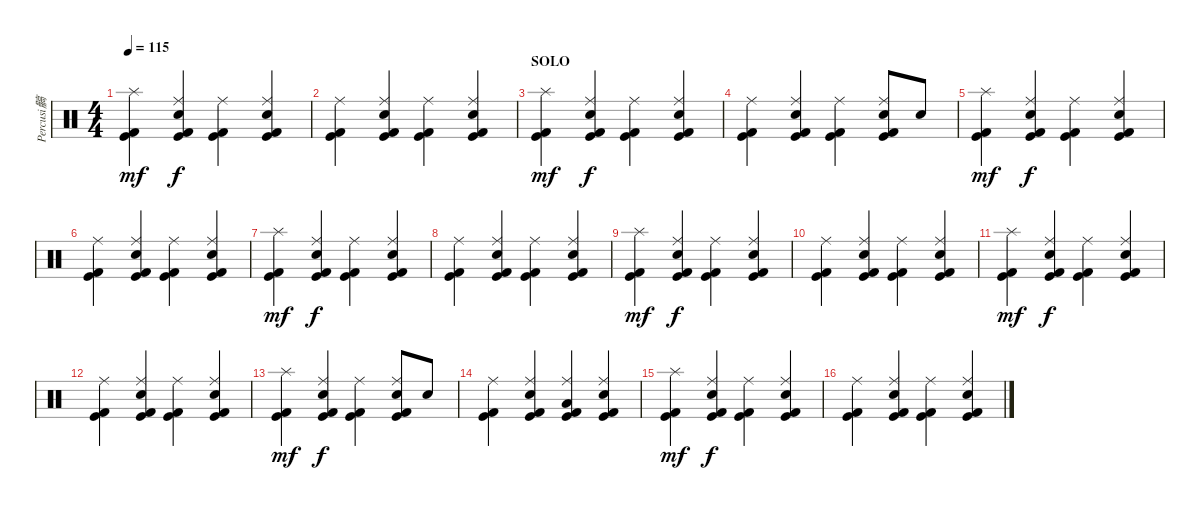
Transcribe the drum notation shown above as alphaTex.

\track ("Percusi髇" "Percusi髇") {instrument percussion}
\staff {score}
\articulation defaults
\ts (4 4)
\tempo 115
\clef neutral
\ks c
("Splash (hit)" "Kick (hit) 2" "Kick (hit)").4{dy mf} ("Ride (middle)" "Electric Snare (hit)" "Kick (hit) 2" "Kick (hit)").4{dy f} ("Ride (middle)" "Kick (hit) 2" "Kick (hit)").4 ("Ride (middle)" "Electric Snare (hit)" "Kick (hit) 2" "Kick (hit)").4 |
("Ride (middle)" "Kick (hit) 2" "Kick (hit)").4 ("Ride (middle)" "Electric Snare (hit)" "Kick (hit) 2" "Kick (hit)").4 ("Ride (middle)" "Kick (hit) 2" "Kick (hit)").4 ("Ride (middle)" "Electric Snare (hit)" "Kick (hit) 2" "Kick (hit)").4 |
\section ("" "SOLO")
("Splash (hit)" "Kick (hit) 2" "Kick (hit)").4{dy mf} ("Ride (middle)" "Electric Snare (hit)" "Kick (hit) 2" "Kick (hit)").4{dy f} ("Ride (middle)" "Kick (hit) 2" "Kick (hit)").4 ("Ride (middle)" "Electric Snare (hit)" "Kick (hit) 2" "Kick (hit)").4 |
("Ride (middle)" "Kick (hit) 2" "Kick (hit)").4 ("Ride (middle)" "Electric Snare (hit)" "Kick (hit) 2" "Kick (hit)").4 ("Ride (middle)" "Kick (hit) 2" "Kick (hit)").4 ("Ride (middle)" "Electric Snare (hit)" "Kick (hit) 2" "Kick (hit)").8 "Electric Snare (hit)".8 |
("Splash (hit)" "Kick (hit) 2" "Kick (hit)").4{dy mf} ("Ride (middle)" "Electric Snare (hit)" "Kick (hit) 2" "Kick (hit)").4{dy f} ("Ride (middle)" "Kick (hit) 2" "Kick (hit)").4 ("Ride (middle)" "Electric Snare (hit)" "Kick (hit) 2" "Kick (hit)").4 |
("Ride (middle)" "Kick (hit) 2" "Kick (hit)").4 ("Ride (middle)" "Electric Snare (hit)" "Kick (hit) 2" "Kick (hit)").4 ("Ride (middle)" "Kick (hit) 2" "Kick (hit)").4 ("Ride (middle)" "Electric Snare (hit)" "Kick (hit) 2" "Kick (hit)").4 |
("Splash (hit)" "Kick (hit) 2" "Kick (hit)").4{dy mf} ("Ride (middle)" "Electric Snare (hit)" "Kick (hit) 2" "Kick (hit)").4{dy f} ("Ride (middle)" "Kick (hit) 2" "Kick (hit)").4 ("Ride (middle)" "Electric Snare (hit)" "Kick (hit) 2" "Kick (hit)").4 |
("Ride (middle)" "Kick (hit) 2" "Kick (hit)").4 ("Ride (middle)" "Electric Snare (hit)" "Kick (hit) 2" "Kick (hit)").4 ("Ride (middle)" "Kick (hit) 2" "Kick (hit)").4 ("Ride (middle)" "Electric Snare (hit)" "Kick (hit) 2" "Kick (hit)").4 |
("Splash (hit)" "Kick (hit) 2" "Kick (hit)").4{dy mf} ("Ride (middle)" "Electric Snare (hit)" "Kick (hit) 2" "Kick (hit)").4{dy f} ("Ride (middle)" "Kick (hit) 2" "Kick (hit)").4 ("Ride (middle)" "Electric Snare (hit)" "Kick (hit) 2" "Kick (hit)").4 |
("Ride (middle)" "Kick (hit) 2" "Kick (hit)").4 ("Ride (middle)" "Electric Snare (hit)" "Kick (hit) 2" "Kick (hit)").4 ("Ride (middle)" "Kick (hit) 2" "Kick (hit)").4 ("Ride (middle)" "Electric Snare (hit)" "Kick (hit) 2" "Kick (hit)").4 |
("Splash (hit)" "Kick (hit) 2" "Kick (hit)").4{dy mf} ("Ride (middle)" "Electric Snare (hit)" "Kick (hit) 2" "Kick (hit)").4{dy f} ("Ride (middle)" "Kick (hit) 2" "Kick (hit)").4 ("Ride (middle)" "Electric Snare (hit)" "Kick (hit) 2" "Kick (hit)").4 |
("Ride (middle)" "Kick (hit) 2" "Kick (hit)").4 ("Ride (middle)" "Electric Snare (hit)" "Kick (hit) 2" "Kick (hit)").4 ("Ride (middle)" "Kick (hit) 2" "Kick (hit)").4 ("Ride (middle)" "Electric Snare (hit)" "Kick (hit) 2" "Kick (hit)").4 |
("Splash (hit)" "Kick (hit) 2" "Kick (hit)").4{dy mf} ("Ride (middle)" "Electric Snare (hit)" "Kick (hit) 2" "Kick (hit)").4{dy f} ("Ride (middle)" "Kick (hit) 2" "Kick (hit)").4 ("Ride (middle)" "Electric Snare (hit)" "Kick (hit) 2" "Kick (hit)").8 "Electric Snare (hit)".8 |
("Ride (middle)" "Kick (hit) 2" "Kick (hit)").4 ("Ride (middle)" "Electric Snare (hit)" "Kick (hit) 2" "Kick (hit)").4 ("Ride (middle)" "Low Tom (hit)" "Kick (hit) 2" "Kick (hit)").4 ("Ride (middle)" "Electric Snare (hit)" "Kick (hit) 2" "Kick (hit)").4 |
("Splash (hit)" "Kick (hit) 2" "Kick (hit)").4{dy mf} ("Ride (middle)" "Electric Snare (hit)" "Kick (hit) 2" "Kick (hit)").4{dy f} ("Ride (middle)" "Kick (hit) 2" "Kick (hit)").4 ("Ride (middle)" "Electric Snare (hit)" "Kick (hit) 2" "Kick (hit)").4 |
("Ride (middle)" "Kick (hit) 2" "Kick (hit)").4 ("Ride (middle)" "Electric Snare (hit)" "Kick (hit) 2" "Kick (hit)").4 ("Ride (middle)" "Kick (hit) 2" "Kick (hit)").4 ("Ride (middle)" "Electric Snare (hit)" "Kick (hit) 2" "Kick (hit)").4
